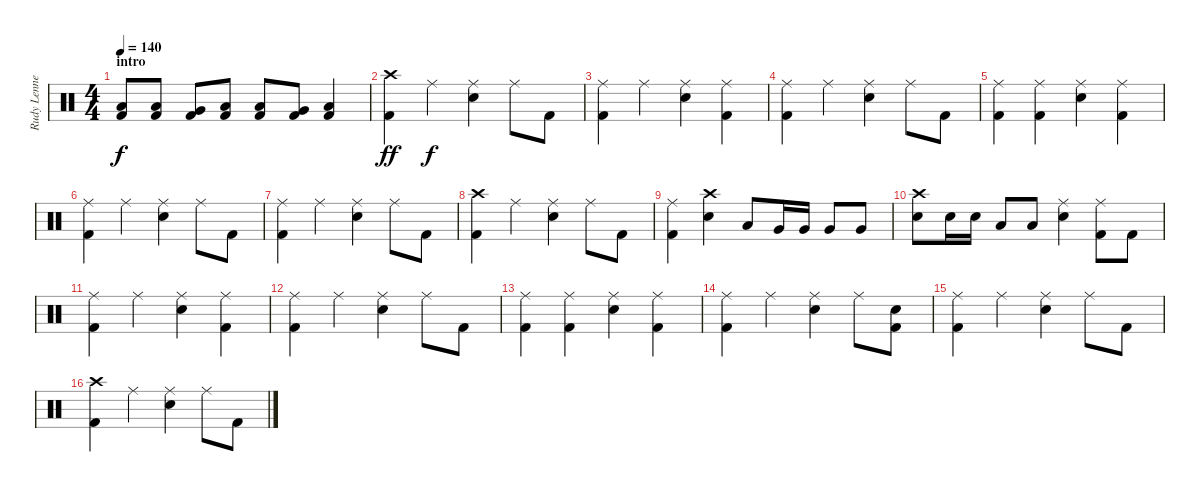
\track ("Rudy Lenners" "Rudy Lenne") {instrument percussion}
\staff {score}
\articulation defaults
\ts (4 4)
\section ("" "intro")
\tempo 140
\clef neutral
\ks c
("Low Tom (hit)" "Kick (hit) 2").8{dy f} ("Low Tom (hit)" "Kick (hit) 2").8 ("Very Low Tom (hit)" "Kick (hit) 2").8 ("Low Tom (hit)" "Kick (hit) 2").8 ("Low Tom (hit)" "Kick (hit) 2").8 ("Very Low Tom (hit)" "Kick (hit) 2").8 ("Low Tom (hit)" "Kick (hit) 2").4 |
("Crash high (hit)" "Kick (hit) 2").4{dy ff} "Ride (middle)".4{dy f} ("Ride (middle)" "Snare (hit) 2").4 "Ride (middle)".8 "Kick (hit) 2".8 |
("Ride (middle)" "Kick (hit) 2").4 "Ride (middle)".4 ("Ride (middle)" "Snare (hit) 2").4 ("Ride (middle)" "Kick (hit) 2").4 |
("Ride (middle)" "Kick (hit) 2").4 "Ride (middle)".4 ("Ride (middle)" "Snare (hit) 2").4 "Ride (middle)".8 "Kick (hit) 2".8 |
("Ride (middle)" "Kick (hit) 2").4 ("Ride (middle)" "Kick (hit) 2").4 ("Ride (middle)" "Snare (hit) 2").4 ("Ride (middle)" "Kick (hit) 2").4 |
("Ride (middle)" "Kick (hit) 2").4 "Ride (middle)".4 ("Ride (middle)" "Snare (hit) 2").4 "Ride (middle)".8 "Kick (hit) 2".8 |
("Ride (middle)" "Kick (hit) 2").4 "Ride (middle)".4 ("Ride (middle)" "Snare (hit) 2").4 "Ride (middle)".8 "Kick (hit) 2".8 |
("Crash high (hit)" "Kick (hit) 2").4 "Ride (middle)".4 ("Ride (middle)" "Snare (hit) 2").4 "Ride (middle)".8 "Kick (hit) 2".8 |
("Ride (middle)" "Kick (hit) 2").4 ("Crash high (hit)" "Snare (hit) 2").4 "Low Tom (hit)".8 "Very Low Tom (hit)".16 "Very Low Tom (hit)".16 "Very Low Tom (hit)".8 "Very Low Tom (hit)".8 |
("Snare (hit) 2" "Crash high (hit)").8 "Snare (hit) 2".16 "Snare (hit) 2".16 "Low Tom (hit)".8 "Low Tom (hit)".8 ("Ride (middle)" "Snare (hit) 2").4 ("Ride (middle)" "Kick (hit) 2").8 "Kick (hit) 2".8 |
("Ride (middle)" "Kick (hit) 2").4 "Ride (middle)".4 ("Ride (middle)" "Snare (hit) 2").4 ("Ride (middle)" "Kick (hit) 2").4 |
("Ride (middle)" "Kick (hit) 2").4 "Ride (middle)".4 ("Ride (middle)" "Snare (hit) 2").4 "Ride (middle)".8 "Kick (hit) 2".8 |
("Ride (middle)" "Kick (hit) 2").4 ("Ride (middle)" "Kick (hit) 2").4 ("Ride (middle)" "Snare (hit) 2").4 ("Ride (middle)" "Kick (hit) 2").4 |
("Ride (middle)" "Kick (hit) 2").4 "Ride (middle)".4 ("Ride (middle)" "Snare (hit) 2").4 "Ride (middle)".8 ("Snare (hit)" "Kick (hit) 2").8 |
("Ride (middle)" "Kick (hit) 2").4 "Ride (middle)".4 ("Ride (middle)" "Snare (hit) 2").4 "Ride (middle)".8 "Kick (hit) 2".8 |
("Crash high (hit)" "Kick (hit) 2").4 "Ride (middle)".4 ("Ride (middle)" "Snare (hit) 2").4 "Ride (middle)".8 "Kick (hit) 2".8
